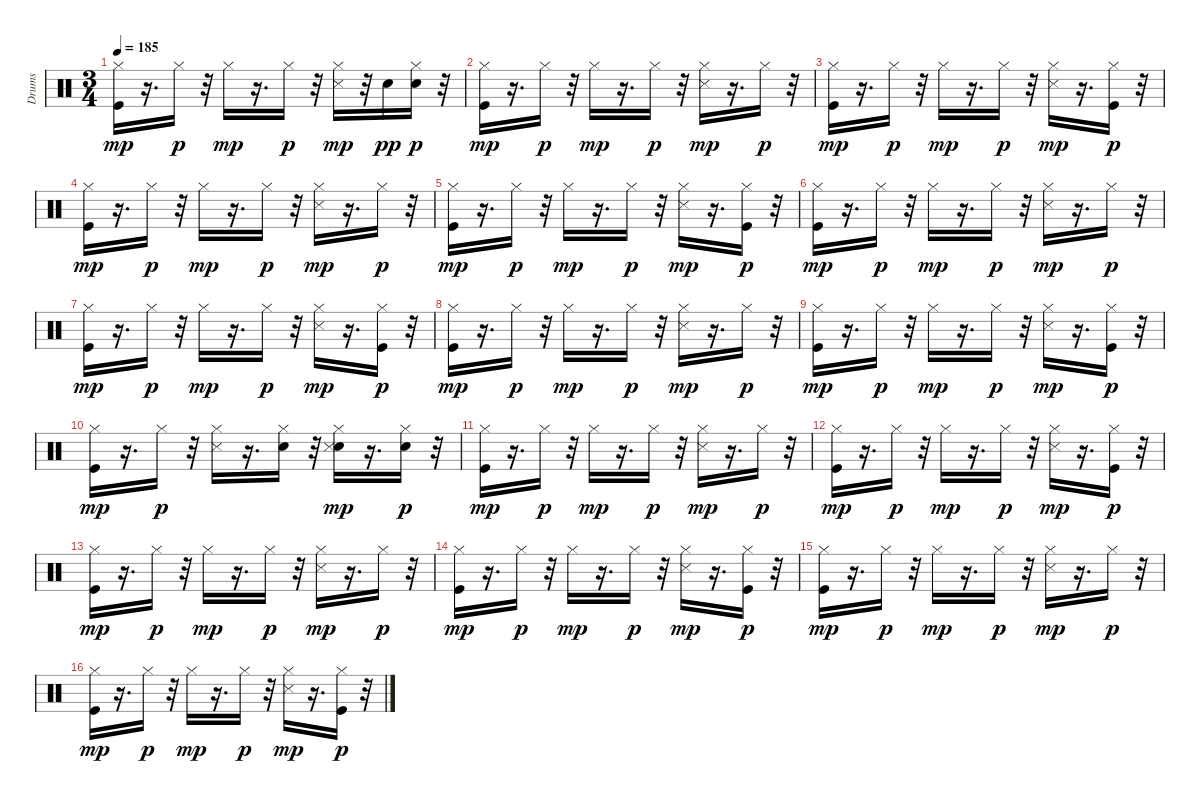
\track ("Drums " "Drums ") {instrument percussion}
\staff {score}
\articulation defaults
\ts (3 4)
\tempo 185
\clef neutral
\ks c
("Kick (hit)" "Hi-Hat (closed)").16{dy mp} r.16{d} "Hi-Hat (closed)".16{dy p} r.32 "Hi-Hat (closed)".16{dy mp} r.16{d} "Hi-Hat (closed)".16{dy p} r.32 ("Hi-Hat (closed)" "Snare (side stick) 3").16{dy mp} r.32 "Snare (hit) 2".16{dy pp} ("Snare (hit) 2" "Hi-Hat (closed)").16{dy p} r.32 |
("Kick (hit)" "Hi-Hat (closed)").16{dy mp} r.16{d} "Hi-Hat (closed)".16{dy p} r.32 "Hi-Hat (closed)".16{dy mp} r.16{d} "Hi-Hat (closed)".16{dy p} r.32 ("Hi-Hat (closed)" "Snare (side stick) 3").16{dy mp} r.16{d} "Hi-Hat (closed)".16{dy p} r.32 |
("Kick (hit)" "Hi-Hat (closed)").16{dy mp} r.16{d} "Hi-Hat (closed)".16{dy p} r.32 "Hi-Hat (closed)".16{dy mp} r.16{d} "Hi-Hat (closed)".16{dy p} r.32 ("Hi-Hat (closed)" "Snare (side stick) 3").16{dy mp} r.16{d} ("Kick (hit)" "Hi-Hat (closed)").16{dy p} r.32 |
("Kick (hit)" "Hi-Hat (closed)").16{dy mp} r.16{d} "Hi-Hat (closed)".16{dy p} r.32 "Hi-Hat (closed)".16{dy mp} r.16{d} "Hi-Hat (closed)".16{dy p} r.32 ("Hi-Hat (closed)" "Snare (side stick) 3").16{dy mp} r.16{d} "Hi-Hat (closed)".16{dy p} r.32 |
("Kick (hit)" "Hi-Hat (closed)").16{dy mp} r.16{d} "Hi-Hat (closed)".16{dy p} r.32 "Hi-Hat (closed)".16{dy mp} r.16{d} "Hi-Hat (closed)".16{dy p} r.32 ("Hi-Hat (closed)" "Snare (side stick) 3").16{dy mp} r.16{d} ("Kick (hit)" "Hi-Hat (closed)").16{dy p} r.32 |
("Kick (hit)" "Hi-Hat (closed)").16{dy mp} r.16{d} "Hi-Hat (closed)".16{dy p} r.32 "Hi-Hat (closed)".16{dy mp} r.16{d} "Hi-Hat (closed)".16{dy p} r.32 ("Hi-Hat (closed)" "Snare (side stick) 3").16{dy mp} r.16{d} "Hi-Hat (closed)".16{dy p} r.32 |
("Kick (hit)" "Hi-Hat (closed)").16{dy mp} r.16{d} "Hi-Hat (closed)".16{dy p} r.32 "Hi-Hat (closed)".16{dy mp} r.16{d} "Hi-Hat (closed)".16{dy p} r.32 ("Hi-Hat (closed)" "Snare (side stick) 3").16{dy mp} r.16{d} ("Kick (hit)" "Hi-Hat (closed)").16{dy p} r.32 |
("Kick (hit)" "Hi-Hat (closed)").16{dy mp} r.16{d} "Hi-Hat (closed)".16{dy p} r.32 "Hi-Hat (closed)".16{dy mp} r.16{d} "Hi-Hat (closed)".16{dy p} r.32 ("Hi-Hat (closed)" "Snare (side stick) 3").16{dy mp} r.16{d} "Hi-Hat (closed)".16{dy p} r.32 |
("Kick (hit)" "Hi-Hat (closed)").16{dy mp} r.16{d} "Hi-Hat (closed)".16{dy p} r.32 "Hi-Hat (closed)".16{dy mp} r.16{d} "Hi-Hat (closed)".16{dy p} r.32 ("Hi-Hat (closed)" "Snare (side stick) 3").16{dy mp} r.16{d} ("Kick (hit)" "Hi-Hat (closed)").16{dy p} r.32 |
("Kick (hit)" "Hi-Hat (closed)").16{dy mp} r.16{d} "Hi-Hat (closed)".16{dy p} r.32 ("Hi-Hat (closed)" "Snare (side stick) 3").16 r.16{d} ("Snare (hit) 2" "Hi-Hat (closed)").16 r.32 ("Snare (hit) 2" "Hi-Hat (closed)" "Snare (side stick) 3").16{dy mp} r.16{d} ("Snare (hit) 2" "Hi-Hat (closed)").16{dy p} r.32 |
("Kick (hit)" "Hi-Hat (closed)").16{dy mp} r.16{d} "Hi-Hat (closed)".16{dy p} r.32 "Hi-Hat (closed)".16{dy mp} r.16{d} "Hi-Hat (closed)".16{dy p} r.32 ("Hi-Hat (closed)" "Snare (side stick) 3").16{dy mp} r.16{d} "Hi-Hat (closed)".16{dy p} r.32 |
("Kick (hit)" "Hi-Hat (closed)").16{dy mp} r.16{d} "Hi-Hat (closed)".16{dy p} r.32 "Hi-Hat (closed)".16{dy mp} r.16{d} "Hi-Hat (closed)".16{dy p} r.32 ("Hi-Hat (closed)" "Snare (side stick) 3").16{dy mp} r.16{d} ("Kick (hit)" "Hi-Hat (closed)").16{dy p} r.32 |
("Kick (hit)" "Hi-Hat (closed)").16{dy mp} r.16{d} "Hi-Hat (closed)".16{dy p} r.32 "Hi-Hat (closed)".16{dy mp} r.16{d} "Hi-Hat (closed)".16{dy p} r.32 ("Hi-Hat (closed)" "Snare (side stick) 3").16{dy mp} r.16{d} "Hi-Hat (closed)".16{dy p} r.32 |
("Kick (hit)" "Hi-Hat (closed)").16{dy mp} r.16{d} "Hi-Hat (closed)".16{dy p} r.32 "Hi-Hat (closed)".16{dy mp} r.16{d} "Hi-Hat (closed)".16{dy p} r.32 ("Hi-Hat (closed)" "Snare (side stick) 3").16{dy mp} r.16{d} ("Kick (hit)" "Hi-Hat (closed)").16{dy p} r.32 |
("Kick (hit)" "Hi-Hat (closed)").16{dy mp} r.16{d} "Hi-Hat (closed)".16{dy p} r.32 "Hi-Hat (closed)".16{dy mp} r.16{d} "Hi-Hat (closed)".16{dy p} r.32 ("Hi-Hat (closed)" "Snare (side stick) 3").16{dy mp} r.16{d} "Hi-Hat (closed)".16{dy p} r.32 |
("Kick (hit)" "Hi-Hat (closed)").16{dy mp} r.16{d} "Hi-Hat (closed)".16{dy p} r.32 "Hi-Hat (closed)".16{dy mp} r.16{d} "Hi-Hat (closed)".16{dy p} r.32 ("Hi-Hat (closed)" "Snare (side stick) 3").16{dy mp} r.16{d} ("Kick (hit)" "Hi-Hat (closed)").16{dy p} r.32
